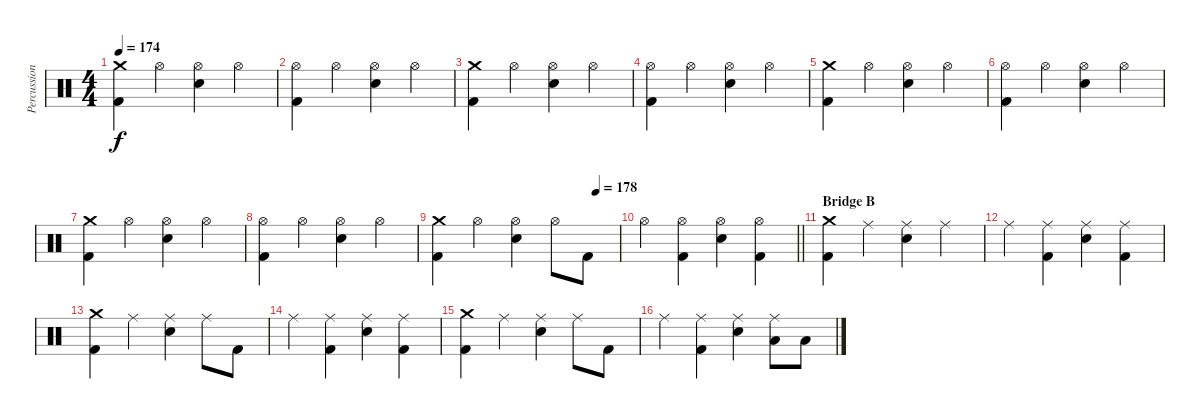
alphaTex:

\track ("Percussions" "Percussion") {instrument percussion}
\staff {score}
\articulation defaults
\ts (4 4)
\tempo 174
\clef neutral
\ks c
("Crash medium (hit)" "Kick (hit) 2").4{dy f} "Hi-Hat (open)".4 ("Hi-Hat (open)" "Electric Snare (hit)").4 "Hi-Hat (open)".4 |
("Hi-Hat (open)" "Kick (hit) 2").4 "Hi-Hat (open)".4 ("Hi-Hat (open)" "Electric Snare (hit)").4 "Hi-Hat (open)".4 |
("Crash medium (hit)" "Kick (hit) 2").4 "Hi-Hat (open)".4 ("Hi-Hat (open)" "Electric Snare (hit)").4 "Hi-Hat (open)".4 |
("Hi-Hat (open)" "Kick (hit) 2").4 "Hi-Hat (open)".4 ("Hi-Hat (open)" "Electric Snare (hit)").4 "Hi-Hat (open)".4 |
("Crash medium (hit)" "Kick (hit) 2").4 "Hi-Hat (open)".4 ("Hi-Hat (open)" "Electric Snare (hit)").4 "Hi-Hat (open)".4 |
("Hi-Hat (open)" "Kick (hit) 2").4 "Hi-Hat (open)".4 ("Hi-Hat (open)" "Electric Snare (hit)").4 "Hi-Hat (open)".4 |
("Crash medium (hit)" "Kick (hit) 2").4 "Hi-Hat (open)".4 ("Hi-Hat (open)" "Electric Snare (hit)").4 "Hi-Hat (open)".4 |
("Hi-Hat (open)" "Kick (hit) 2").4 "Hi-Hat (open)".4 ("Hi-Hat (open)" "Electric Snare (hit)").4 "Hi-Hat (open)".4 |
\tempo (178 0.875)
("Crash medium (hit)" "Kick (hit) 2").4 "Hi-Hat (open)".4 ("Hi-Hat (open)" "Electric Snare (hit)").4 "Hi-Hat (open)".8 "Kick (hit) 2".8 |
\barLineRight lightlight "Hi-Hat (open)".4
("Hi-Hat (open)" "Kick (hit) 2").4 ("Hi-Hat (open)" "Electric Snare (hit)").4 ("Hi-Hat (open)" "Kick (hit) 2").4 |
\section ("" "Bridge B")
("Crash medium (hit)" "Kick (hit) 2").4 "Ride (middle)".4 ("Ride (middle)" "Electric Snare (hit)").4 "Ride (middle)".4 |
"Ride (middle)".4 ("Ride (middle)" "Kick (hit) 2").4 ("Ride (middle)" "Electric Snare (hit)").4 ("Ride (middle)" "Kick (hit) 2").4 |
("Crash medium (hit)" "Kick (hit) 2").4 "Ride (middle)".4 ("Ride (middle)" "Electric Snare (hit)").4 "Ride (middle)".8 "Kick (hit) 2".8 |
"Ride (middle)".4 ("Ride (middle)" "Kick (hit) 2").4 ("Ride (middle)" "Electric Snare (hit)").4 ("Ride (middle)" "Kick (hit) 2").4 |
("Crash medium (hit)" "Kick (hit) 2").4 "Ride (middle)".4 ("Ride (middle)" "Electric Snare (hit)").4 "Ride (middle)".8 "Kick (hit) 2".8 |
"Ride (middle)".4 ("Ride (middle)" "Kick (hit) 2").4 ("Ride (middle)" "Electric Snare (hit)").4 ("Ride (middle)" "Low Tom (hit)").8 "Low Tom (hit)".8
